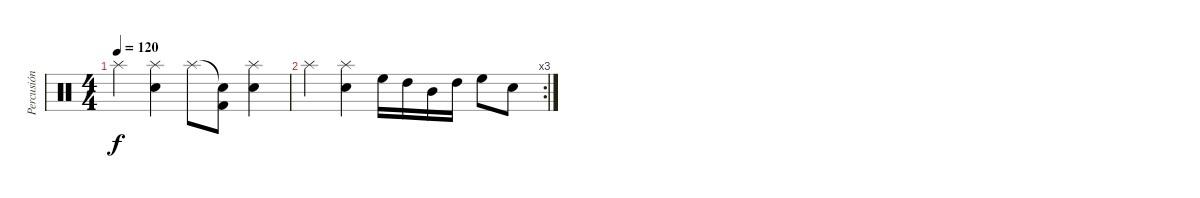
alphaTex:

\track ("Percusión" "Percusión") {instrument percussion}
\staff {score}
\articulation defaults
\ts (4 4)
\tempo 120
\clef neutral
\ks c "Splash (hit)".4{dy f}
("Splash (hit)" "Snare (hit) 2").4 "Splash (hit)".8 ("Snare (hit)"{t} "Kick (hit) 2").8 ("Splash (hit)" "Snare (hit) 2").4 |
\rc 3 "Splash (hit)".4
("Splash (hit)" "Snare (hit) 2").4 "High Floor Tom (hit)".16 "High Tom (hit)".16 "Mid Tom (hit)".16 "High Tom (hit)".16 "High Floor Tom (hit)".8 "Snare (hit) 2".8
